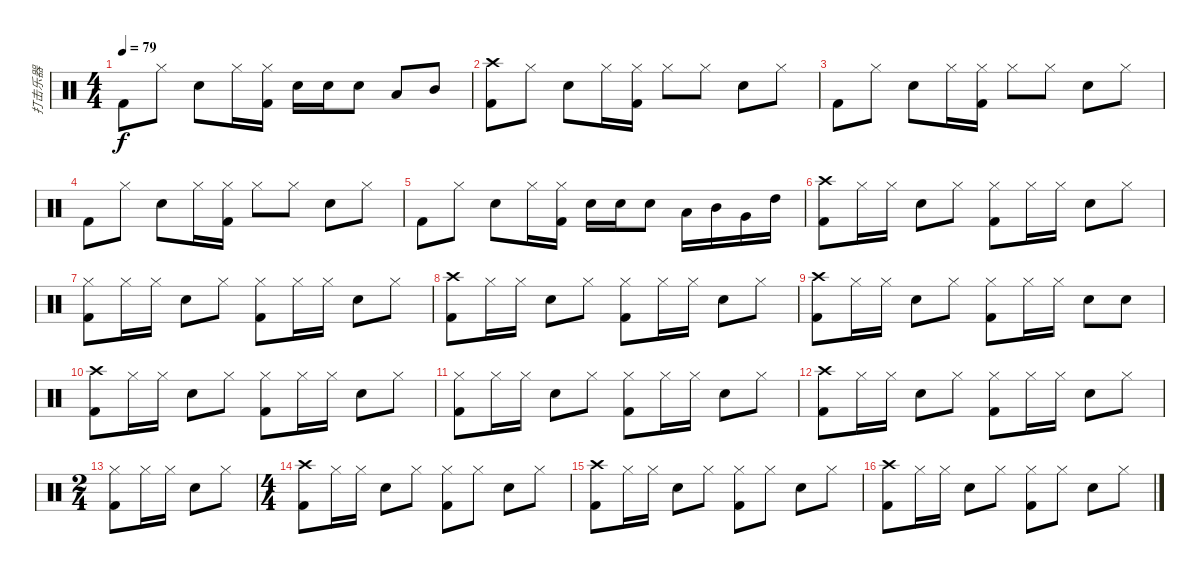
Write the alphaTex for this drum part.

\track ("打击乐器" "打击乐器") {instrument percussion}
\staff {score}
\articulation defaults
\ts (4 4)
\tempo 79
\clef neutral
\ks c "Kick (hit) 2".8{dy f} "Hi-Hat (closed)".8 "Electric Snare (hit)".8 "Hi-Hat (closed)".16
("Hi-Hat (closed)" "Kick (hit) 2").16 "Electric Snare (hit)".16 "Electric Snare (hit)".16 "Electric Snare (hit)".8 "Low Tom (hit)".8 "Mid Tom (hit)".8 |
("Crash high (hit)" "Kick (hit) 2").8 "Hi-Hat (closed)".8 "Electric Snare (hit)".8 "Hi-Hat (closed)".16 ("Hi-Hat (closed)" "Kick (hit) 2").16 "Hi-Hat (closed)".8 "Hi-Hat (closed)".8 "Electric Snare (hit)".8 "Hi-Hat (closed)".8 |
"Kick (hit) 2".8 "Hi-Hat (closed)".8 "Electric Snare (hit)".8 "Hi-Hat (closed)".16 ("Hi-Hat (closed)" "Kick (hit) 2").16 "Hi-Hat (closed)".8 "Hi-Hat (closed)".8 "Electric Snare (hit)".8 "Hi-Hat (closed)".8 |
"Kick (hit) 2".8 "Hi-Hat (closed)".8 "Electric Snare (hit)".8 "Hi-Hat (closed)".16 ("Hi-Hat (closed)" "Kick (hit) 2").16 "Hi-Hat (closed)".8 "Hi-Hat (closed)".8 "Electric Snare (hit)".8 "Hi-Hat (closed)".8 |
"Kick (hit) 2".8 "Hi-Hat (closed)".8 "Electric Snare (hit)".8 "Hi-Hat (closed)".16 ("Hi-Hat (closed)" "Kick (hit) 2").16 "Electric Snare (hit)".16 "Electric Snare (hit)".16 "Electric Snare (hit)".8 "Low Tom (hit)".16 "Mid Tom (hit)".16 "Very Low Tom (hit)".16 "High Tom (hit)".16 |
("Crash high (hit)" "Kick (hit) 2").8 "Hi-Hat (closed)".16 "Hi-Hat (closed)".16 "Electric Snare (hit)".8 "Hi-Hat (closed)".8 ("Hi-Hat (closed)" "Kick (hit) 2").8 "Hi-Hat (closed)".16 "Hi-Hat (closed)".16 "Electric Snare (hit)".8 "Hi-Hat (closed)".8 |
("Hi-Hat (closed)" "Kick (hit) 2").8 "Hi-Hat (closed)".16 "Hi-Hat (closed)".16 "Electric Snare (hit)".8 "Hi-Hat (closed)".8 ("Hi-Hat (closed)" "Kick (hit) 2").8 "Hi-Hat (closed)".16 "Hi-Hat (closed)".16 "Electric Snare (hit)".8 "Hi-Hat (closed)".8 |
("Crash high (hit)" "Kick (hit) 2").8 "Hi-Hat (closed)".16 "Hi-Hat (closed)".16 "Electric Snare (hit)".8 "Hi-Hat (closed)".8 ("Hi-Hat (closed)" "Kick (hit) 2").8 "Hi-Hat (closed)".16 "Hi-Hat (closed)".16 "Electric Snare (hit)".8 "Hi-Hat (closed)".8 |
("Crash high (hit)" "Kick (hit) 2").8 "Hi-Hat (closed)".16 "Hi-Hat (closed)".16 "Electric Snare (hit)".8 "Hi-Hat (closed)".8 ("Hi-Hat (closed)" "Kick (hit) 2").8 "Hi-Hat (closed)".16 "Hi-Hat (closed)".16 "Electric Snare (hit)".8 "Electric Snare (hit)".8 |
("Crash high (hit)" "Kick (hit) 2").8 "Hi-Hat (closed)".16 "Hi-Hat (closed)".16 "Electric Snare (hit)".8 "Hi-Hat (closed)".8 ("Hi-Hat (closed)" "Kick (hit) 2").8 "Hi-Hat (closed)".16 "Hi-Hat (closed)".16 "Electric Snare (hit)".8 "Hi-Hat (closed)".8 |
("Hi-Hat (closed)" "Kick (hit) 2").8 "Hi-Hat (closed)".16 "Hi-Hat (closed)".16 "Electric Snare (hit)".8 "Hi-Hat (closed)".8 ("Hi-Hat (closed)" "Kick (hit) 2").8 "Hi-Hat (closed)".16 "Hi-Hat (closed)".16 "Electric Snare (hit)".8 "Hi-Hat (closed)".8 |
("Crash high (hit)" "Kick (hit) 2").8 "Hi-Hat (closed)".16 "Hi-Hat (closed)".16 "Electric Snare (hit)".8 "Hi-Hat (closed)".8 ("Hi-Hat (closed)" "Kick (hit) 2").8 "Hi-Hat (closed)".16 "Hi-Hat (closed)".16 "Electric Snare (hit)".8 "Hi-Hat (closed)".8 |
\ts (2 4)
("Hi-Hat (closed)" "Kick (hit) 2").8 "Hi-Hat (closed)".16 "Hi-Hat (closed)".16 "Electric Snare (hit)".8 "Hi-Hat (closed)".8 |
\ts (4 4)
("Crash high (hit)" "Kick (hit) 2").8 "Hi-Hat (closed)".16 "Hi-Hat (closed)".16 "Electric Snare (hit)".8 "Hi-Hat (closed)".8 ("Hi-Hat (closed)" "Kick (hit) 2").8 "Hi-Hat (closed)".8 "Electric Snare (hit)".8 "Hi-Hat (closed)".8 |
("Crash high (hit)" "Kick (hit) 2").8 "Hi-Hat (closed)".16 "Hi-Hat (closed)".16 "Electric Snare (hit)".8 "Hi-Hat (closed)".8 ("Hi-Hat (closed)" "Kick (hit) 2").8 "Hi-Hat (closed)".8 "Electric Snare (hit)".8 "Hi-Hat (closed)".8 |
("Crash high (hit)" "Kick (hit) 2").8 "Hi-Hat (closed)".16 "Hi-Hat (closed)".16 "Electric Snare (hit)".8 "Hi-Hat (closed)".8 ("Hi-Hat (closed)" "Kick (hit) 2").8 "Hi-Hat (closed)".8 "Electric Snare (hit)".8 "Hi-Hat (closed)".8
